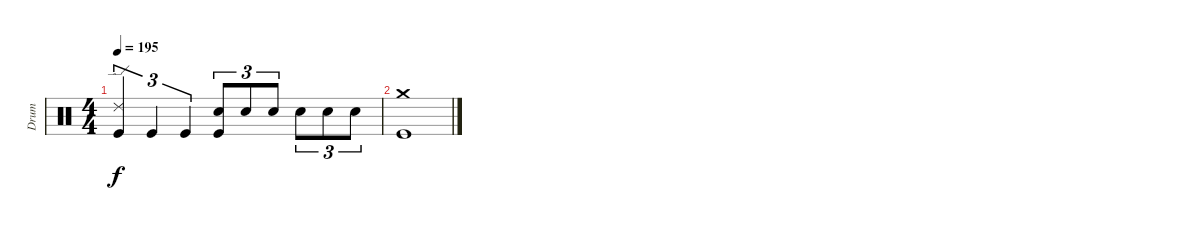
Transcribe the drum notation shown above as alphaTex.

\track ("Drum" "Drum") {instrument percussion}
\staff {score}
\articulation defaults
\ts (4 4)
\tempo 195
\clef neutral
\ks c
("Ride (edge) 2" "Kick (hit)").4{tu (3 2) dy f} "Kick (hit)".4{tu (3 2)} "Kick (hit)".4{tu (3 2)} ("Snare (hit) 2" "Kick (hit)").8{tu (3 2)} "Snare (hit) 2".8{tu (3 2)} "Snare (hit) 2".8{tu (3 2)} "Snare (hit) 2".8{tu (3 2)} "Snare (hit) 2".8{tu (3 2)} "Snare (hit) 2".8{tu (3 2)} |
("Crash medium (hit)" "Kick (hit)").1
